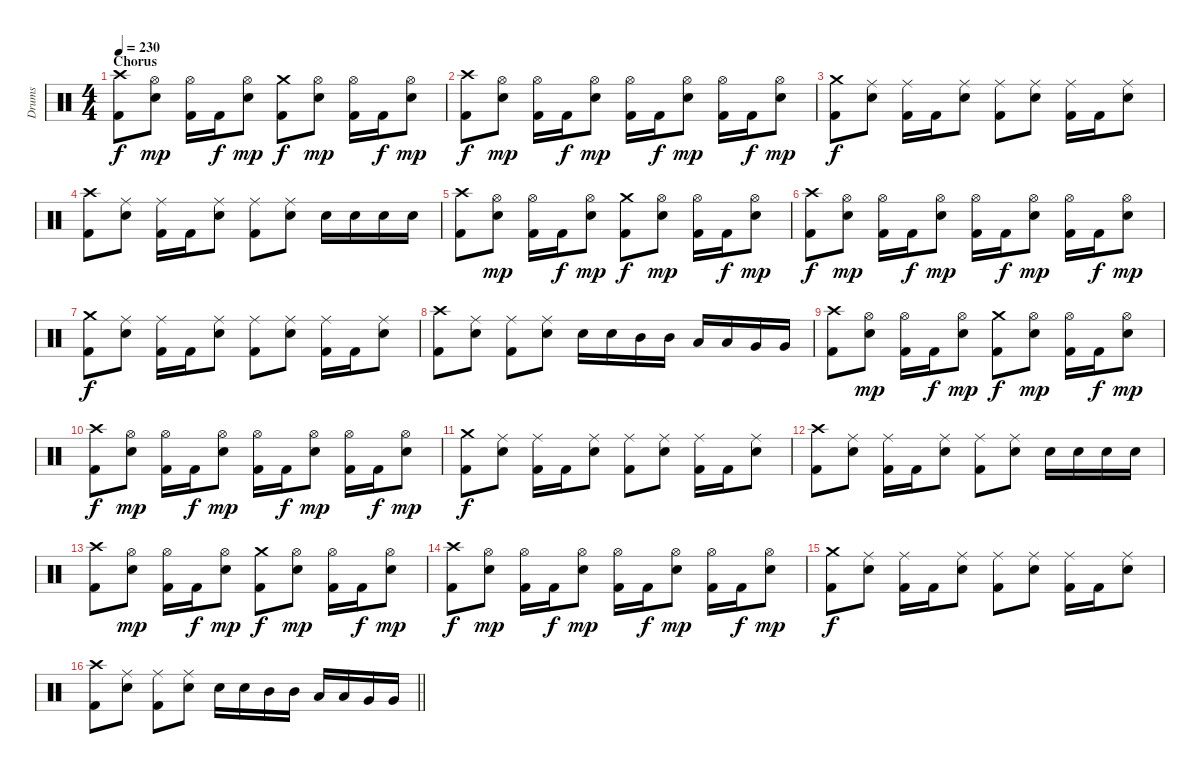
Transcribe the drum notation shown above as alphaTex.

\track ("Drums" "Drums") {instrument percussion}
\staff {score}
\articulation defaults
\ts (4 4)
\section ("" "Chorus")
\tempo 230
\clef neutral
\ks c
("Crash high (hit)" "Kick (hit) 2").8{dy f} ("Hi-Hat (open)" "Snare (hit) 2").8{dy mp} ("Hi-Hat (open)" "Kick (hit) 2").16 "Kick (hit) 2".16{dy f} ("Hi-Hat (open)" "Snare (hit) 2").8{dy mp} ("Crash medium (hit)" "Kick (hit) 2").8{dy f} ("Hi-Hat (open)" "Snare (hit) 2").8{dy mp} ("Hi-Hat (open)" "Kick (hit) 2").16 "Kick (hit) 2".16{dy f} ("Hi-Hat (open)" "Snare (hit) 2").8{dy mp} |
("Crash high (hit)" "Kick (hit) 2").8{dy f} ("Hi-Hat (open)" "Snare (hit) 2").8{dy mp} ("Hi-Hat (open)" "Kick (hit) 2").16 "Kick (hit) 2".16{dy f} ("Hi-Hat (open)" "Snare (hit) 2").8{dy mp} ("Hi-Hat (open)" "Kick (hit) 2").16 "Kick (hit) 2".16{dy f} ("Hi-Hat (open)" "Snare (hit) 2").8{dy mp} ("Hi-Hat (open)" "Kick (hit) 2").16 "Kick (hit) 2".16{dy f} ("Hi-Hat (open)" "Snare (hit) 2").8{dy mp} |
("Crash medium (hit)" "Kick (hit) 2").8{dy f} ("Ride (middle)" "Snare (hit) 2").8 ("Ride (middle)" "Kick (hit) 2").16 "Kick (hit) 2".16 ("Ride (middle)" "Snare (hit) 2").8 ("Ride (middle)" "Kick (hit) 2").8 ("Ride (middle)" "Snare (hit) 2").8 ("Ride (middle)" "Kick (hit) 2").16 "Kick (hit) 2".16 ("Ride (middle)" "Snare (hit) 2").8 |
("Crash high (hit)" "Kick (hit) 2").8 ("Ride (middle)" "Snare (hit) 2").8 ("Ride (middle)" "Kick (hit) 2").16 "Kick (hit) 2".16 ("Ride (middle)" "Snare (hit) 2").8 ("Ride (middle)" "Kick (hit) 2").8 ("Ride (middle)" "Snare (hit) 2").8 "Snare (hit) 2".16 "Snare (hit) 2".16 "Snare (hit) 2".16 "Snare (hit) 2".16 |
("Crash high (hit)" "Kick (hit) 2").8 ("Hi-Hat (open)" "Snare (hit) 2").8{dy mp} ("Hi-Hat (open)" "Kick (hit) 2").16 "Kick (hit) 2".16{dy f} ("Hi-Hat (open)" "Snare (hit) 2").8{dy mp} ("Crash medium (hit)" "Kick (hit) 2").8{dy f} ("Hi-Hat (open)" "Snare (hit) 2").8{dy mp} ("Hi-Hat (open)" "Kick (hit) 2").16 "Kick (hit) 2".16{dy f} ("Hi-Hat (open)" "Snare (hit) 2").8{dy mp} |
("Crash high (hit)" "Kick (hit) 2").8{dy f} ("Hi-Hat (open)" "Snare (hit) 2").8{dy mp} ("Hi-Hat (open)" "Kick (hit) 2").16 "Kick (hit) 2".16{dy f} ("Hi-Hat (open)" "Snare (hit) 2").8{dy mp} ("Hi-Hat (open)" "Kick (hit) 2").16 "Kick (hit) 2".16{dy f} ("Hi-Hat (open)" "Snare (hit) 2").8{dy mp} ("Hi-Hat (open)" "Kick (hit) 2").16 "Kick (hit) 2".16{dy f} ("Hi-Hat (open)" "Snare (hit) 2").8{dy mp} |
("Crash medium (hit)" "Kick (hit) 2").8{dy f} ("Ride (middle)" "Snare (hit) 2").8 ("Ride (middle)" "Kick (hit) 2").16 "Kick (hit) 2".16 ("Ride (middle)" "Snare (hit) 2").8 ("Ride (middle)" "Kick (hit) 2").8 ("Ride (middle)" "Snare (hit) 2").8 ("Ride (middle)" "Kick (hit) 2").16 "Kick (hit) 2".16 ("Ride (middle)" "Snare (hit) 2").8 |
("Crash high (hit)" "Kick (hit) 2").8 ("Ride (middle)" "Snare (hit) 2").8 ("Ride (middle)" "Kick (hit) 2").8 ("Ride (middle)" "Snare (hit) 2").8 "Snare (hit) 2".16 "Snare (hit) 2".16 "Mid Tom (hit)".16 "Mid Tom (hit)".16 "Low Tom (hit)".16 "Low Tom (hit)".16 "Very Low Tom (hit)".16 "Very Low Tom (hit)".16 |
("Crash high (hit)" "Kick (hit) 2").8 ("Hi-Hat (open)" "Snare (hit) 2").8{dy mp} ("Hi-Hat (open)" "Kick (hit) 2").16 "Kick (hit) 2".16{dy f} ("Hi-Hat (open)" "Snare (hit) 2").8{dy mp} ("Crash medium (hit)" "Kick (hit) 2").8{dy f} ("Hi-Hat (open)" "Snare (hit) 2").8{dy mp} ("Hi-Hat (open)" "Kick (hit) 2").16 "Kick (hit) 2".16{dy f} ("Hi-Hat (open)" "Snare (hit) 2").8{dy mp} |
("Crash high (hit)" "Kick (hit) 2").8{dy f} ("Hi-Hat (open)" "Snare (hit) 2").8{dy mp} ("Hi-Hat (open)" "Kick (hit) 2").16 "Kick (hit) 2".16{dy f} ("Hi-Hat (open)" "Snare (hit) 2").8{dy mp} ("Hi-Hat (open)" "Kick (hit) 2").16 "Kick (hit) 2".16{dy f} ("Hi-Hat (open)" "Snare (hit) 2").8{dy mp} ("Hi-Hat (open)" "Kick (hit) 2").16 "Kick (hit) 2".16{dy f} ("Hi-Hat (open)" "Snare (hit) 2").8{dy mp} |
("Crash medium (hit)" "Kick (hit) 2").8{dy f} ("Ride (middle)" "Snare (hit) 2").8 ("Ride (middle)" "Kick (hit) 2").16 "Kick (hit) 2".16 ("Ride (middle)" "Snare (hit) 2").8 ("Ride (middle)" "Kick (hit) 2").8 ("Ride (middle)" "Snare (hit) 2").8 ("Ride (middle)" "Kick (hit) 2").16 "Kick (hit) 2".16 ("Ride (middle)" "Snare (hit) 2").8 |
("Crash high (hit)" "Kick (hit) 2").8 ("Ride (middle)" "Snare (hit) 2").8 ("Ride (middle)" "Kick (hit) 2").16 "Kick (hit) 2".16 ("Ride (middle)" "Snare (hit) 2").8 ("Ride (middle)" "Kick (hit) 2").8 ("Ride (middle)" "Snare (hit) 2").8 "Snare (hit) 2".16 "Snare (hit) 2".16 "Snare (hit) 2".16 "Snare (hit) 2".16 |
("Crash high (hit)" "Kick (hit) 2").8 ("Hi-Hat (open)" "Snare (hit) 2").8{dy mp} ("Hi-Hat (open)" "Kick (hit) 2").16 "Kick (hit) 2".16{dy f} ("Hi-Hat (open)" "Snare (hit) 2").8{dy mp} ("Crash medium (hit)" "Kick (hit) 2").8{dy f} ("Hi-Hat (open)" "Snare (hit) 2").8{dy mp} ("Hi-Hat (open)" "Kick (hit) 2").16 "Kick (hit) 2".16{dy f} ("Hi-Hat (open)" "Snare (hit) 2").8{dy mp} |
("Crash high (hit)" "Kick (hit) 2").8{dy f} ("Hi-Hat (open)" "Snare (hit) 2").8{dy mp} ("Hi-Hat (open)" "Kick (hit) 2").16 "Kick (hit) 2".16{dy f} ("Hi-Hat (open)" "Snare (hit) 2").8{dy mp} ("Hi-Hat (open)" "Kick (hit) 2").16 "Kick (hit) 2".16{dy f} ("Hi-Hat (open)" "Snare (hit) 2").8{dy mp} ("Hi-Hat (open)" "Kick (hit) 2").16 "Kick (hit) 2".16{dy f} ("Hi-Hat (open)" "Snare (hit) 2").8{dy mp} |
("Crash medium (hit)" "Kick (hit) 2").8{dy f} ("Ride (middle)" "Snare (hit) 2").8 ("Ride (middle)" "Kick (hit) 2").16 "Kick (hit) 2".16 ("Ride (middle)" "Snare (hit) 2").8 ("Ride (middle)" "Kick (hit) 2").8 ("Ride (middle)" "Snare (hit) 2").8 ("Ride (middle)" "Kick (hit) 2").16 "Kick (hit) 2".16 ("Ride (middle)" "Snare (hit) 2").8 |
\barLineRight lightlight
("Crash high (hit)" "Kick (hit) 2").8 ("Ride (middle)" "Snare (hit) 2").8 ("Ride (middle)" "Kick (hit) 2").8 ("Ride (middle)" "Snare (hit) 2").8 "Snare (hit) 2".16 "Snare (hit) 2".16 "Mid Tom (hit)".16 "Mid Tom (hit)".16 "Low Tom (hit)".16 "Low Tom (hit)".16 "Very Low Tom (hit)".16 "Very Low Tom (hit)".16
